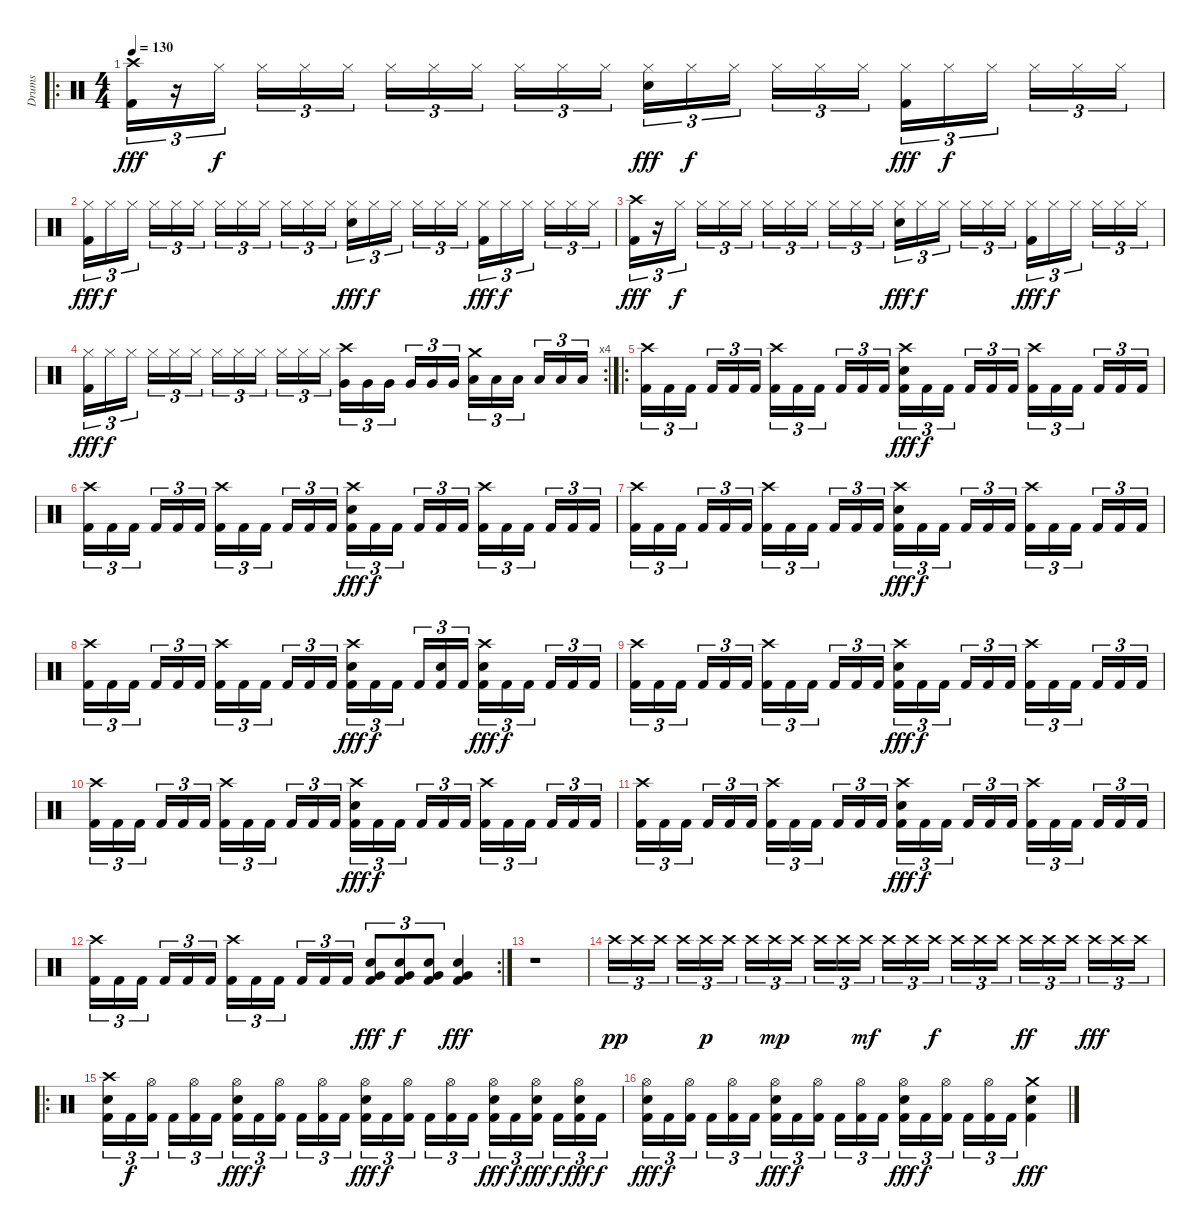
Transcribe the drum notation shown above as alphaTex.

\track ("Drums" "Drums") {instrument percussion}
\staff {score}
\articulation defaults
\ro
\ts (4 4)
\tempo 130
\clef neutral
\ks c
("Crash high (hit)" "Kick (hit) 2").16{tu (3 2) dy fff} r.16{tu (3 2)} "Hi-Hat (closed)".16{tu (3 2) dy f} "Hi-Hat (closed)".16{tu (3 2)} "Hi-Hat (closed)".16{tu (3 2)} "Hi-Hat (closed)".16{tu (3 2)} "Hi-Hat (closed)".16{tu (3 2)} "Hi-Hat (closed)".16{tu (3 2)} "Hi-Hat (closed)".16{tu (3 2)} "Hi-Hat (closed)".16{tu (3 2)} "Hi-Hat (closed)".16{tu (3 2)} "Hi-Hat (closed)".16{tu (3 2)} ("Hi-Hat (closed)" "Snare (hit) 2").16{tu (3 2) dy fff} "Hi-Hat (closed)".16{tu (3 2) dy f} "Hi-Hat (closed)".16{tu (3 2)} "Hi-Hat (closed)".16{tu (3 2)} "Hi-Hat (closed)".16{tu (3 2)} "Hi-Hat (closed)".16{tu (3 2)} ("Hi-Hat (closed)" "Kick (hit) 2").16{tu (3 2) dy fff} "Hi-Hat (closed)".16{tu (3 2) dy f} "Hi-Hat (closed)".16{tu (3 2)} "Hi-Hat (closed)".16{tu (3 2)} "Hi-Hat (closed)".16{tu (3 2)} "Hi-Hat (closed)".16{tu (3 2)} |
("Hi-Hat (closed)" "Kick (hit) 2").16{tu (3 2) dy fff} "Hi-Hat (closed)".16{tu (3 2) dy f} "Hi-Hat (closed)".16{tu (3 2)} "Hi-Hat (closed)".16{tu (3 2)} "Hi-Hat (closed)".16{tu (3 2)} "Hi-Hat (closed)".16{tu (3 2)} "Hi-Hat (closed)".16{tu (3 2)} "Hi-Hat (closed)".16{tu (3 2)} "Hi-Hat (closed)".16{tu (3 2)} "Hi-Hat (closed)".16{tu (3 2)} "Hi-Hat (closed)".16{tu (3 2)} "Hi-Hat (closed)".16{tu (3 2)} ("Hi-Hat (closed)" "Snare (hit) 2").16{tu (3 2) dy fff} "Hi-Hat (closed)".16{tu (3 2) dy f} "Hi-Hat (closed)".16{tu (3 2)} "Hi-Hat (closed)".16{tu (3 2)} "Hi-Hat (closed)".16{tu (3 2)} "Hi-Hat (closed)".16{tu (3 2)} ("Hi-Hat (closed)" "Kick (hit) 2").16{tu (3 2) dy fff} "Hi-Hat (closed)".16{tu (3 2) dy f} "Hi-Hat (closed)".16{tu (3 2)} "Hi-Hat (closed)".16{tu (3 2)} "Hi-Hat (closed)".16{tu (3 2)} "Hi-Hat (closed)".16{tu (3 2)} |
("Crash high (hit)" "Kick (hit) 2").16{tu (3 2) dy fff} r.16{tu (3 2)} "Hi-Hat (closed)".16{tu (3 2) dy f} "Hi-Hat (closed)".16{tu (3 2)} "Hi-Hat (closed)".16{tu (3 2)} "Hi-Hat (closed)".16{tu (3 2)} "Hi-Hat (closed)".16{tu (3 2)} "Hi-Hat (closed)".16{tu (3 2)} "Hi-Hat (closed)".16{tu (3 2)} "Hi-Hat (closed)".16{tu (3 2)} "Hi-Hat (closed)".16{tu (3 2)} "Hi-Hat (closed)".16{tu (3 2)} ("Hi-Hat (closed)" "Snare (hit) 2").16{tu (3 2) dy fff} "Hi-Hat (closed)".16{tu (3 2) dy f} "Hi-Hat (closed)".16{tu (3 2)} "Hi-Hat (closed)".16{tu (3 2)} "Hi-Hat (closed)".16{tu (3 2)} "Hi-Hat (closed)".16{tu (3 2)} ("Hi-Hat (closed)" "Kick (hit) 2").16{tu (3 2) dy fff} "Hi-Hat (closed)".16{tu (3 2) dy f} "Hi-Hat (closed)".16{tu (3 2)} "Hi-Hat (closed)".16{tu (3 2)} "Hi-Hat (closed)".16{tu (3 2)} "Hi-Hat (closed)".16{tu (3 2)} |
\rc 4
("Hi-Hat (closed)" "Kick (hit) 2").16{tu (3 2) dy fff} "Hi-Hat (closed)".16{tu (3 2) dy f} "Hi-Hat (closed)".16{tu (3 2)} "Hi-Hat (closed)".16{tu (3 2)} "Hi-Hat (closed)".16{tu (3 2)} "Hi-Hat (closed)".16{tu (3 2)} "Hi-Hat (closed)".16{tu (3 2)} "Hi-Hat (closed)".16{tu (3 2)} "Hi-Hat (closed)".16{tu (3 2)} "Hi-Hat (closed)".16{tu (3 2)} "Hi-Hat (closed)".16{tu (3 2)} "Hi-Hat (closed)".16{tu (3 2)} ("Crash high (hit)" "Very Low Tom (hit)").16{tu (3 2)} "Very Low Tom (hit)".16{tu (3 2)} "Very Low Tom (hit)".16{tu (3 2)} "Very Low Tom (hit)".16{tu (3 2)} "Very Low Tom (hit)".16{tu (3 2)} "Very Low Tom (hit)".16{tu (3 2)} ("Crash medium (hit)" "Low Floor Tom (hit)").16{tu (3 2)} "Low Floor Tom (hit)".16{tu (3 2)} "Low Floor Tom (hit)".16{tu (3 2)} "Low Floor Tom (hit)".16{tu (3 2)} "Low Floor Tom (hit)".16{tu (3 2)} "Low Floor Tom (hit)".16{tu (3 2)} |
\ro
("Crash high (hit)" "Kick (hit) 2").16{tu (3 2)} "Kick (hit) 2".16{tu (3 2)} "Kick (hit) 2".16{tu (3 2)} "Kick (hit) 2".16{tu (3 2)} "Kick (hit) 2".16{tu (3 2)} "Kick (hit) 2".16{tu (3 2)} ("Crash high (hit)" "Kick (hit) 2").16{tu (3 2)} "Kick (hit) 2".16{tu (3 2)} "Kick (hit) 2".16{tu (3 2)} "Kick (hit) 2".16{tu (3 2)} "Kick (hit) 2".16{tu (3 2)} "Kick (hit) 2".16{tu (3 2)} ("Crash high (hit)" "Snare (hit) 2" "Kick (hit) 2").16{tu (3 2) dy fff} "Kick (hit) 2".16{tu (3 2) dy f} "Kick (hit) 2".16{tu (3 2)} "Kick (hit) 2".16{tu (3 2)} "Kick (hit) 2".16{tu (3 2)} "Kick (hit) 2".16{tu (3 2)} ("Crash high (hit)" "Kick (hit) 2").16{tu (3 2)} "Kick (hit) 2".16{tu (3 2)} "Kick (hit) 2".16{tu (3 2)} "Kick (hit) 2".16{tu (3 2)} "Kick (hit) 2".16{tu (3 2)} "Kick (hit) 2".16{tu (3 2)} |
("Crash high (hit)" "Kick (hit) 2").16{tu (3 2)} "Kick (hit) 2".16{tu (3 2)} "Kick (hit) 2".16{tu (3 2)} "Kick (hit) 2".16{tu (3 2)} "Kick (hit) 2".16{tu (3 2)} "Kick (hit) 2".16{tu (3 2)} ("Crash high (hit)" "Kick (hit) 2").16{tu (3 2)} "Kick (hit) 2".16{tu (3 2)} "Kick (hit) 2".16{tu (3 2)} "Kick (hit) 2".16{tu (3 2)} "Kick (hit) 2".16{tu (3 2)} "Kick (hit) 2".16{tu (3 2)} ("Crash high (hit)" "Snare (hit) 2" "Kick (hit) 2").16{tu (3 2) dy fff} "Kick (hit) 2".16{tu (3 2) dy f} "Kick (hit) 2".16{tu (3 2)} "Kick (hit) 2".16{tu (3 2)} "Kick (hit) 2".16{tu (3 2)} "Kick (hit) 2".16{tu (3 2)} ("Crash high (hit)" "Kick (hit) 2").16{tu (3 2)} "Kick (hit) 2".16{tu (3 2)} "Kick (hit) 2".16{tu (3 2)} "Kick (hit) 2".16{tu (3 2)} "Kick (hit) 2".16{tu (3 2)} "Kick (hit) 2".16{tu (3 2)} |
("Crash high (hit)" "Kick (hit) 2").16{tu (3 2)} "Kick (hit) 2".16{tu (3 2)} "Kick (hit) 2".16{tu (3 2)} "Kick (hit) 2".16{tu (3 2)} "Kick (hit) 2".16{tu (3 2)} "Kick (hit) 2".16{tu (3 2)} ("Crash high (hit)" "Kick (hit) 2").16{tu (3 2)} "Kick (hit) 2".16{tu (3 2)} "Kick (hit) 2".16{tu (3 2)} "Kick (hit) 2".16{tu (3 2)} "Kick (hit) 2".16{tu (3 2)} "Kick (hit) 2".16{tu (3 2)} ("Crash high (hit)" "Snare (hit) 2" "Kick (hit) 2").16{tu (3 2) dy fff} "Kick (hit) 2".16{tu (3 2) dy f} "Kick (hit) 2".16{tu (3 2)} "Kick (hit) 2".16{tu (3 2)} "Kick (hit) 2".16{tu (3 2)} "Kick (hit) 2".16{tu (3 2)} ("Crash high (hit)" "Kick (hit) 2").16{tu (3 2)} "Kick (hit) 2".16{tu (3 2)} "Kick (hit) 2".16{tu (3 2)} "Kick (hit) 2".16{tu (3 2)} "Kick (hit) 2".16{tu (3 2)} "Kick (hit) 2".16{tu (3 2)} |
("Crash high (hit)" "Kick (hit) 2").16{tu (3 2)} "Kick (hit) 2".16{tu (3 2)} "Kick (hit) 2".16{tu (3 2)} "Kick (hit) 2".16{tu (3 2)} "Kick (hit) 2".16{tu (3 2)} "Kick (hit) 2".16{tu (3 2)} ("Crash high (hit)" "Kick (hit) 2").16{tu (3 2)} "Kick (hit) 2".16{tu (3 2)} "Kick (hit) 2".16{tu (3 2)} "Kick (hit) 2".16{tu (3 2)} "Kick (hit) 2".16{tu (3 2)} "Kick (hit) 2".16{tu (3 2)} ("Crash high (hit)" "Snare (hit) 2" "Kick (hit) 2").16{tu (3 2) dy fff} "Kick (hit) 2".16{tu (3 2) dy f} "Kick (hit) 2".16{tu (3 2)} "Kick (hit) 2".16{tu (3 2)} ("Snare (hit) 2" "Kick (hit) 2").16{tu (3 2)} "Kick (hit) 2".16{tu (3 2)} ("Crash high (hit)" "Snare (hit) 2" "Kick (hit) 2").16{tu (3 2) dy fff} "Kick (hit) 2".16{tu (3 2) dy f} "Kick (hit) 2".16{tu (3 2)} "Kick (hit) 2".16{tu (3 2)} "Kick (hit) 2".16{tu (3 2)} "Kick (hit) 2".16{tu (3 2)} |
("Crash high (hit)" "Kick (hit) 2").16{tu (3 2)} "Kick (hit) 2".16{tu (3 2)} "Kick (hit) 2".16{tu (3 2)} "Kick (hit) 2".16{tu (3 2)} "Kick (hit) 2".16{tu (3 2)} "Kick (hit) 2".16{tu (3 2)} ("Crash high (hit)" "Kick (hit) 2").16{tu (3 2)} "Kick (hit) 2".16{tu (3 2)} "Kick (hit) 2".16{tu (3 2)} "Kick (hit) 2".16{tu (3 2)} "Kick (hit) 2".16{tu (3 2)} "Kick (hit) 2".16{tu (3 2)} ("Crash high (hit)" "Snare (hit) 2" "Kick (hit) 2").16{tu (3 2) dy fff} "Kick (hit) 2".16{tu (3 2) dy f} "Kick (hit) 2".16{tu (3 2)} "Kick (hit) 2".16{tu (3 2)} "Kick (hit) 2".16{tu (3 2)} "Kick (hit) 2".16{tu (3 2)} ("Crash high (hit)" "Kick (hit) 2").16{tu (3 2)} "Kick (hit) 2".16{tu (3 2)} "Kick (hit) 2".16{tu (3 2)} "Kick (hit) 2".16{tu (3 2)} "Kick (hit) 2".16{tu (3 2)} "Kick (hit) 2".16{tu (3 2)} |
("Crash high (hit)" "Kick (hit) 2").16{tu (3 2)} "Kick (hit) 2".16{tu (3 2)} "Kick (hit) 2".16{tu (3 2)} "Kick (hit) 2".16{tu (3 2)} "Kick (hit) 2".16{tu (3 2)} "Kick (hit) 2".16{tu (3 2)} ("Crash high (hit)" "Kick (hit) 2").16{tu (3 2)} "Kick (hit) 2".16{tu (3 2)} "Kick (hit) 2".16{tu (3 2)} "Kick (hit) 2".16{tu (3 2)} "Kick (hit) 2".16{tu (3 2)} "Kick (hit) 2".16{tu (3 2)} ("Crash high (hit)" "Snare (hit) 2" "Kick (hit) 2").16{tu (3 2) dy fff} "Kick (hit) 2".16{tu (3 2) dy f} "Kick (hit) 2".16{tu (3 2)} "Kick (hit) 2".16{tu (3 2)} "Kick (hit) 2".16{tu (3 2)} "Kick (hit) 2".16{tu (3 2)} ("Crash high (hit)" "Kick (hit) 2").16{tu (3 2)} "Kick (hit) 2".16{tu (3 2)} "Kick (hit) 2".16{tu (3 2)} "Kick (hit) 2".16{tu (3 2)} "Kick (hit) 2".16{tu (3 2)} "Kick (hit) 2".16{tu (3 2)} |
("Crash high (hit)" "Kick (hit) 2").16{tu (3 2)} "Kick (hit) 2".16{tu (3 2)} "Kick (hit) 2".16{tu (3 2)} "Kick (hit) 2".16{tu (3 2)} "Kick (hit) 2".16{tu (3 2)} "Kick (hit) 2".16{tu (3 2)} ("Crash high (hit)" "Kick (hit) 2").16{tu (3 2)} "Kick (hit) 2".16{tu (3 2)} "Kick (hit) 2".16{tu (3 2)} "Kick (hit) 2".16{tu (3 2)} "Kick (hit) 2".16{tu (3 2)} "Kick (hit) 2".16{tu (3 2)} ("Crash high (hit)" "Snare (hit) 2" "Kick (hit) 2").16{tu (3 2) dy fff} "Kick (hit) 2".16{tu (3 2) dy f} "Kick (hit) 2".16{tu (3 2)} "Kick (hit) 2".16{tu (3 2)} "Kick (hit) 2".16{tu (3 2)} "Kick (hit) 2".16{tu (3 2)} ("Crash high (hit)" "Kick (hit) 2").16{tu (3 2)} "Kick (hit) 2".16{tu (3 2)} "Kick (hit) 2".16{tu (3 2)} "Kick (hit) 2".16{tu (3 2)} "Kick (hit) 2".16{tu (3 2)} "Kick (hit) 2".16{tu (3 2)} |
\rc 2
("Crash high (hit)" "Kick (hit) 2").16{tu (3 2)} "Kick (hit) 2".16{tu (3 2)} "Kick (hit) 2".16{tu (3 2)} "Kick (hit) 2".16{tu (3 2)} "Kick (hit) 2".16{tu (3 2)} "Kick (hit) 2".16{tu (3 2)} ("Crash high (hit)" "Kick (hit) 2").16{tu (3 2)} "Kick (hit) 2".16{tu (3 2)} "Kick (hit) 2".16{tu (3 2)} "Kick (hit) 2".16{tu (3 2)} "Kick (hit) 2".16{tu (3 2)} "Kick (hit) 2".16{tu (3 2)} ("Snare (hit) 2" "Very Low Tom (hit)" "Kick (hit) 2").8{tu (3 2) dy fff} ("Snare (hit) 2" "Very Low Tom (hit)" "Kick (hit) 2").8{tu (3 2) dy f} ("Snare (hit) 2" "Very Low Tom (hit)" "Kick (hit) 2").8{tu (3 2)} ("Snare (hit) 2" "Very Low Tom (hit)" "Kick (hit) 2").4{dy fff} |
r.1 |
"Crash high (hit)".16{tu (3 2) dy pp} "Crash high (hit)".16{tu (3 2)} "Crash high (hit)".16{tu (3 2)} "Crash high (hit)".16{tu (3 2)} "Crash high (hit)".16{tu (3 2) dy p} "Crash high (hit)".16{tu (3 2)} "Crash high (hit)".16{tu (3 2)} "Crash high (hit)".16{tu (3 2) dy mp} "Crash high (hit)".16{tu (3 2)} "Crash high (hit)".16{tu (3 2)} "Crash high (hit)".16{tu (3 2)} "Crash high (hit)".16{tu (3 2) dy mf} "Crash high (hit)".16{tu (3 2)} "Crash high (hit)".16{tu (3 2)} "Crash high (hit)".16{tu (3 2) dy f} "Crash high (hit)".16{tu (3 2)} "Crash high (hit)".16{tu (3 2)} "Crash high (hit)".16{tu (3 2)} "Crash high (hit)".16{tu (3 2) dy ff} "Crash high (hit)".16{tu (3 2)} "Crash high (hit)".16{tu (3 2)} "Crash high (hit)".16{tu (3 2) dy fff} "Crash high (hit)".16{tu (3 2)} "Crash high (hit)".16{tu (3 2)} |
\ro
("Crash high (hit)" "Snare (hit) 2" "Kick (hit) 2").16{tu (3 2)} "Kick (hit) 2".16{tu (3 2) dy f} ("Hi-Hat (open)" "Kick (hit) 2").16{tu (3 2)} "Kick (hit) 2".16{tu (3 2)} ("Hi-Hat (open)" "Kick (hit) 2").16{tu (3 2)} "Kick (hit) 2".16{tu (3 2)} ("Hi-Hat (open)" "Snare (hit) 2" "Kick (hit) 2").16{tu (3 2) dy fff} "Kick (hit) 2".16{tu (3 2) dy f} ("Hi-Hat (open)" "Kick (hit) 2").16{tu (3 2)} "Kick (hit) 2".16{tu (3 2)} ("Hi-Hat (open)" "Kick (hit) 2").16{tu (3 2)} "Kick (hit) 2".16{tu (3 2)} ("Hi-Hat (open)" "Snare (hit) 2" "Kick (hit) 2").16{tu (3 2) dy fff} "Kick (hit) 2".16{tu (3 2) dy f} ("Hi-Hat (open)" "Kick (hit) 2").16{tu (3 2)} "Kick (hit) 2".16{tu (3 2)} ("Hi-Hat (open)" "Kick (hit) 2").16{tu (3 2)} "Kick (hit) 2".16{tu (3 2)} ("Hi-Hat (open)" "Snare (hit) 2" "Kick (hit) 2").16{tu (3 2) dy fff} "Kick (hit) 2".16{tu (3 2) dy f} ("Hi-Hat (open)" "Snare (hit) 2" "Kick (hit) 2").16{tu (3 2) dy fff} "Kick (hit) 2".16{tu (3 2) dy f} ("Hi-Hat (open)" "Snare (hit) 2" "Kick (hit) 2").16{tu (3 2) dy fff} "Kick (hit) 2".16{tu (3 2) dy f} |
("Hi-Hat (open)" "Snare (hit) 2" "Kick (hit) 2").16{tu (3 2) dy fff} "Kick (hit) 2".16{tu (3 2) dy f} ("Hi-Hat (open)" "Kick (hit) 2").16{tu (3 2)} "Kick (hit) 2".16{tu (3 2)} ("Hi-Hat (open)" "Kick (hit) 2").16{tu (3 2)} "Kick (hit) 2".16{tu (3 2)} ("Hi-Hat (open)" "Snare (hit) 2" "Kick (hit) 2").16{tu (3 2) dy fff} "Kick (hit) 2".16{tu (3 2) dy f} ("Hi-Hat (open)" "Kick (hit) 2").16{tu (3 2)} "Kick (hit) 2".16{tu (3 2)} ("Hi-Hat (open)" "Kick (hit) 2").16{tu (3 2)} "Kick (hit) 2".16{tu (3 2)} ("Hi-Hat (open)" "Snare (hit) 2" "Kick (hit) 2").16{tu (3 2) dy fff} "Kick (hit) 2".16{tu (3 2) dy f} ("Hi-Hat (open)" "Kick (hit) 2").16{tu (3 2)} "Kick (hit) 2".16{tu (3 2)} ("Hi-Hat (open)" "Kick (hit) 2").16{tu (3 2)} "Kick (hit) 2".16{tu (3 2)} ("Crash medium (hit)" "Snare (hit) 2" "Kick (hit) 2").4{dy fff}
